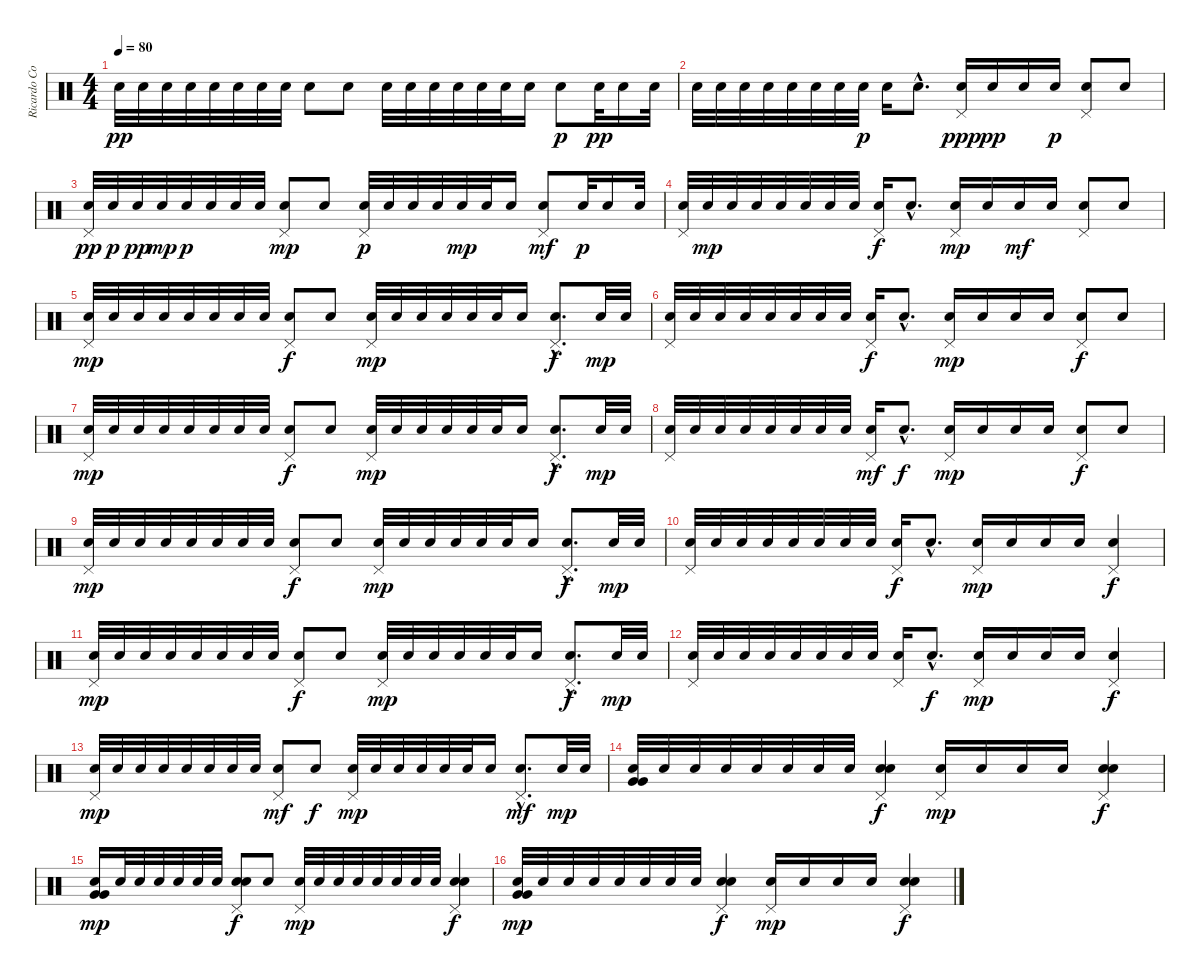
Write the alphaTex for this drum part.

\track ("Ricardo Confessori" "Ricardo Co") {instrument percussion}
\staff {score}
\articulation defaults
\ts (4 4)
\tempo 80
\clef neutral
\ks c "Electric Snare (hit)".32{dy pp} "Electric Snare (hit)".32 "Electric Snare (hit)".32 "Electric Snare (hit)".32 "Electric Snare (hit)".32 "Electric Snare (hit)".32 "Electric Snare (hit)".32 "Electric Snare (hit)".32 "Electric Snare (hit)".8 "Electric Snare (hit)".8 "Electric Snare (hit)".32 "Electric Snare (hit)".32 "Electric Snare (hit)".32 "Electric Snare (hit)".32 "Electric Snare (hit)".32 "Electric Snare (hit)".32 "Electric Snare (hit)".16 "Electric Snare (hit)".8{dy p} "Electric Snare (hit)".32{dy pp} "Electric Snare (hit)".16 "Electric Snare (hit)".32
|
"Electric Snare (hit)".32 "Electric Snare (hit)".32 "Electric Snare (hit)".32 "Electric Snare (hit)".32 "Electric Snare (hit)".32 "Electric Snare (hit)".32 "Electric Snare (hit)".32 "Electric Snare (hit)".32{dy p} "Electric Snare (hit)".16 "Electric Snare (hit)"{hac}.8{d} ("Pedal Hi-Hat (hit)" "Electric Snare (hit)").16{dy ppp} "Electric Snare (hit)".16{dy pp} "Electric Snare (hit)".16 "Electric Snare (hit)".16{dy p} ("Pedal Hi-Hat (hit)" "Electric Snare (hit)").8 "Electric Snare (hit)".8 |
("Pedal Hi-Hat (hit)" "Electric Snare (hit)").32{dy pp} "Electric Snare (hit)".32{dy p} "Electric Snare (hit)".32{dy pp} "Electric Snare (hit)".32{dy mp} "Electric Snare (hit)".32{dy p} "Electric Snare (hit)".32 "Electric Snare (hit)".32 "Electric Snare (hit)".32 ("Pedal Hi-Hat (hit)" "Electric Snare (hit)").8{dy mp} "Electric Snare (hit)".8 ("Pedal Hi-Hat (hit)" "Electric Snare (hit)").32{dy p} "Electric Snare (hit)".32 "Electric Snare (hit)".32 "Electric Snare (hit)".32 "Electric Snare (hit)".32{dy mp} "Electric Snare (hit)".32 "Electric Snare (hit)".16 ("Pedal Hi-Hat (hit)" "Electric Snare (hit)").8{dy mf} "Electric Snare (hit)".32{dy p} "Electric Snare (hit)".16 "Electric Snare (hit)".32 |
("Pedal Hi-Hat (hit)" "Electric Snare (hit)").32 "Electric Snare (hit)".32{dy mp} "Electric Snare (hit)".32 "Electric Snare (hit)".32 "Electric Snare (hit)".32 "Electric Snare (hit)".32 "Electric Snare (hit)".32 "Electric Snare (hit)".32 ("Pedal Hi-Hat (hit)" "Electric Snare (hit)").16{dy f} "Electric Snare (hit)"{hac}.8{d} ("Pedal Hi-Hat (hit)" "Electric Snare (hit)").16{dy mp} "Electric Snare (hit)".16 "Electric Snare (hit)".16{dy mf} "Electric Snare (hit)".16 ("Pedal Hi-Hat (hit)" "Electric Snare (hit)").8 "Electric Snare (hit)".8 |
("Pedal Hi-Hat (hit)" "Electric Snare (hit)").32{dy mp} "Electric Snare (hit)".32 "Electric Snare (hit)".32 "Electric Snare (hit)".32 "Electric Snare (hit)".32 "Electric Snare (hit)".32 "Electric Snare (hit)".32 "Electric Snare (hit)".32 ("Pedal Hi-Hat (hit)" "Electric Snare (hit)").8{dy f} "Electric Snare (hit)".8 ("Pedal Hi-Hat (hit)" "Electric Snare (hit)").32{dy mp} "Electric Snare (hit)".32 "Electric Snare (hit)".32 "Electric Snare (hit)".32 "Electric Snare (hit)".32 "Electric Snare (hit)".32 "Electric Snare (hit)".16 ("Pedal Hi-Hat (hit)"{hac} "Electric Snare (hit)"{hac}).8{d dy f} "Electric Snare (hit)".32{dy mp} "Electric Snare (hit)".32 |
("Pedal Hi-Hat (hit)" "Electric Snare (hit)").32 "Electric Snare (hit)".32 "Electric Snare (hit)".32 "Electric Snare (hit)".32 "Electric Snare (hit)".32 "Electric Snare (hit)".32 "Electric Snare (hit)".32 "Electric Snare (hit)".32 ("Pedal Hi-Hat (hit)" "Electric Snare (hit)").16{dy f} "Electric Snare (hit)"{hac}.8{d} ("Pedal Hi-Hat (hit)" "Electric Snare (hit)").16{dy mp} "Electric Snare (hit)".16 "Electric Snare (hit)".16 "Electric Snare (hit)".16 ("Pedal Hi-Hat (hit)" "Electric Snare (hit)").8{dy f} "Electric Snare (hit)".8 |
("Pedal Hi-Hat (hit)" "Electric Snare (hit)").32{dy mp} "Electric Snare (hit)".32 "Electric Snare (hit)".32 "Electric Snare (hit)".32 "Electric Snare (hit)".32 "Electric Snare (hit)".32 "Electric Snare (hit)".32 "Electric Snare (hit)".32 ("Pedal Hi-Hat (hit)" "Electric Snare (hit)").8{dy f} "Electric Snare (hit)".8 ("Pedal Hi-Hat (hit)" "Electric Snare (hit)").32{dy mp} "Electric Snare (hit)".32 "Electric Snare (hit)".32 "Electric Snare (hit)".32 "Electric Snare (hit)".32 "Electric Snare (hit)".32 "Electric Snare (hit)".16 ("Pedal Hi-Hat (hit)"{hac} "Electric Snare (hit)"{hac}).8{d dy f} "Electric Snare (hit)".32{dy mp} "Electric Snare (hit)".32 |
("Pedal Hi-Hat (hit)" "Electric Snare (hit)").32 "Electric Snare (hit)".32 "Electric Snare (hit)".32 "Electric Snare (hit)".32 "Electric Snare (hit)".32 "Electric Snare (hit)".32 "Electric Snare (hit)".32 "Electric Snare (hit)".32 ("Pedal Hi-Hat (hit)" "Electric Snare (hit)").16{dy mf} "Electric Snare (hit)"{hac}.8{d dy f} ("Pedal Hi-Hat (hit)" "Electric Snare (hit)").16{dy mp} "Electric Snare (hit)".16 "Electric Snare (hit)".16 "Electric Snare (hit)".16 ("Pedal Hi-Hat (hit)" "Electric Snare (hit)").8{dy f} "Electric Snare (hit)".8 |
("Pedal Hi-Hat (hit)" "Electric Snare (hit)").32{dy mp} "Electric Snare (hit)".32 "Electric Snare (hit)".32 "Electric Snare (hit)".32 "Electric Snare (hit)".32 "Electric Snare (hit)".32 "Electric Snare (hit)".32 "Electric Snare (hit)".32 ("Pedal Hi-Hat (hit)" "Electric Snare (hit)").8{dy f} "Electric Snare (hit)".8 ("Pedal Hi-Hat (hit)" "Electric Snare (hit)").32{dy mp} "Electric Snare (hit)".32 "Electric Snare (hit)".32 "Electric Snare (hit)".32 "Electric Snare (hit)".32 "Electric Snare (hit)".32 "Electric Snare (hit)".16 ("Pedal Hi-Hat (hit)"{hac} "Electric Snare (hit)"{hac}).8{d dy f} "Electric Snare (hit)".32{dy mp} "Electric Snare (hit)".32 |
("Pedal Hi-Hat (hit)" "Electric Snare (hit)").32 "Electric Snare (hit)".32 "Electric Snare (hit)".32 "Electric Snare (hit)".32 "Electric Snare (hit)".32 "Electric Snare (hit)".32 "Electric Snare (hit)".32 "Electric Snare (hit)".32 ("Pedal Hi-Hat (hit)" "Electric Snare (hit)").16{dy f} "Electric Snare (hit)"{hac}.8{d} ("Pedal Hi-Hat (hit)" "Electric Snare (hit)").16{dy mp} "Electric Snare (hit)".16 "Electric Snare (hit)".16 "Electric Snare (hit)".16 ("Pedal Hi-Hat (hit)" "Electric Snare (hit)").4{dy f} |
("Pedal Hi-Hat (hit)" "Electric Snare (hit)").32{dy mp} "Electric Snare (hit)".32 "Electric Snare (hit)".32 "Electric Snare (hit)".32 "Electric Snare (hit)".32 "Electric Snare (hit)".32 "Electric Snare (hit)".32 "Electric Snare (hit)".32 ("Pedal Hi-Hat (hit)" "Electric Snare (hit)").8{dy f} "Electric Snare (hit)".8 ("Pedal Hi-Hat (hit)" "Electric Snare (hit)").32{dy mp} "Electric Snare (hit)".32 "Electric Snare (hit)".32 "Electric Snare (hit)".32 "Electric Snare (hit)".32 "Electric Snare (hit)".32 "Electric Snare (hit)".16 ("Pedal Hi-Hat (hit)"{hac} "Electric Snare (hit)"{hac}).8{d dy f} "Electric Snare (hit)".32{dy mp} "Electric Snare (hit)".32 |
("Pedal Hi-Hat (hit)" "Electric Snare (hit)").32 "Electric Snare (hit)".32 "Electric Snare (hit)".32 "Electric Snare (hit)".32 "Electric Snare (hit)".32 "Electric Snare (hit)".32 "Electric Snare (hit)".32 "Electric Snare (hit)".32 ("Pedal Hi-Hat (hit)" "Electric Snare (hit)").16 "Electric Snare (hit)"{hac}.8{d dy f} ("Pedal Hi-Hat (hit)" "Electric Snare (hit)").16{dy mp} "Electric Snare (hit)".16 "Electric Snare (hit)".16 "Electric Snare (hit)".16 ("Pedal Hi-Hat (hit)" "Electric Snare (hit)").4{dy f} |
("Pedal Hi-Hat (hit)" "Electric Snare (hit)").32{dy mp} "Electric Snare (hit)".32 "Electric Snare (hit)".32 "Electric Snare (hit)".32 "Electric Snare (hit)".32 "Electric Snare (hit)".32 "Electric Snare (hit)".32 "Electric Snare (hit)".32 ("Pedal Hi-Hat (hit)" "Electric Snare (hit)").8{dy mf} "Electric Snare (hit)".8{dy f} ("Pedal Hi-Hat (hit)" "Electric Snare (hit)").32{dy mp} "Electric Snare (hit)".32 "Electric Snare (hit)".32 "Electric Snare (hit)".32 "Electric Snare (hit)".32 "Electric Snare (hit)".32 "Electric Snare (hit)".16 ("Pedal Hi-Hat (hit)"{hac} "Electric Snare (hit)"{hac}).8{d dy mf} "Electric Snare (hit)".32{dy mp} "Electric Snare (hit)".32 |
("Very Low Tom (hit)" "Very Low Tom (hit)" "Electric Snare (hit)").32 "Electric Snare (hit)".32 "Electric Snare (hit)".32 "Electric Snare (hit)".32 "Electric Snare (hit)".32 "Electric Snare (hit)".32 "Electric Snare (hit)".32 "Electric Snare (hit)".32 ("Pedal Hi-Hat (hit)" "Electric Snare (hit)" "Electric Snare (hit)").4{bd 120 dy f} ("Pedal Hi-Hat (hit)" "Electric Snare (hit)").16{dy mp} "Electric Snare (hit)".16 "Electric Snare (hit)".16 "Electric Snare (hit)".16 ("Pedal Hi-Hat (hit)" "Electric Snare (hit)" "Electric Snare (hit)").4{bd 120 dy f} |
("Very Low Tom (hit)" "Very Low Tom (hit)" "Electric Snare (hit)").16{dy mp} "Electric Snare (hit)".32 "Electric Snare (hit)".32 "Electric Snare (hit)".32 "Electric Snare (hit)".32 "Electric Snare (hit)".32 "Electric Snare (hit)".32 ("Pedal Hi-Hat (hit)" "Electric Snare (hit)" "Electric Snare (hit)").8{bd 120 dy f} "Electric Snare (hit)".8 ("Pedal Hi-Hat (hit)" "Electric Snare (hit)").32{dy mp} "Electric Snare (hit)".32 "Electric Snare (hit)".32 "Electric Snare (hit)".32 "Electric Snare (hit)".32 "Electric Snare (hit)".32 "Electric Snare (hit)".32 "Electric Snare (hit)".32 ("Pedal Hi-Hat (hit)" "Electric Snare (hit)" "Electric Snare (hit)").4{bd 120 dy f} |
("Very Low Tom (hit)" "Very Low Tom (hit)" "Electric Snare (hit)").32{dy mp} "Electric Snare (hit)".32 "Electric Snare (hit)".32 "Electric Snare (hit)".32 "Electric Snare (hit)".32 "Electric Snare (hit)".32 "Electric Snare (hit)".32 "Electric Snare (hit)".32 ("Pedal Hi-Hat (hit)" "Electric Snare (hit)" "Electric Snare (hit)").4{bd 120 dy f} ("Pedal Hi-Hat (hit)" "Electric Snare (hit)").16{dy mp} "Electric Snare (hit)".16 "Electric Snare (hit)".16 "Electric Snare (hit)".16 ("Pedal Hi-Hat (hit)" "Electric Snare (hit)" "Electric Snare (hit)").4{bd 120 dy f}
